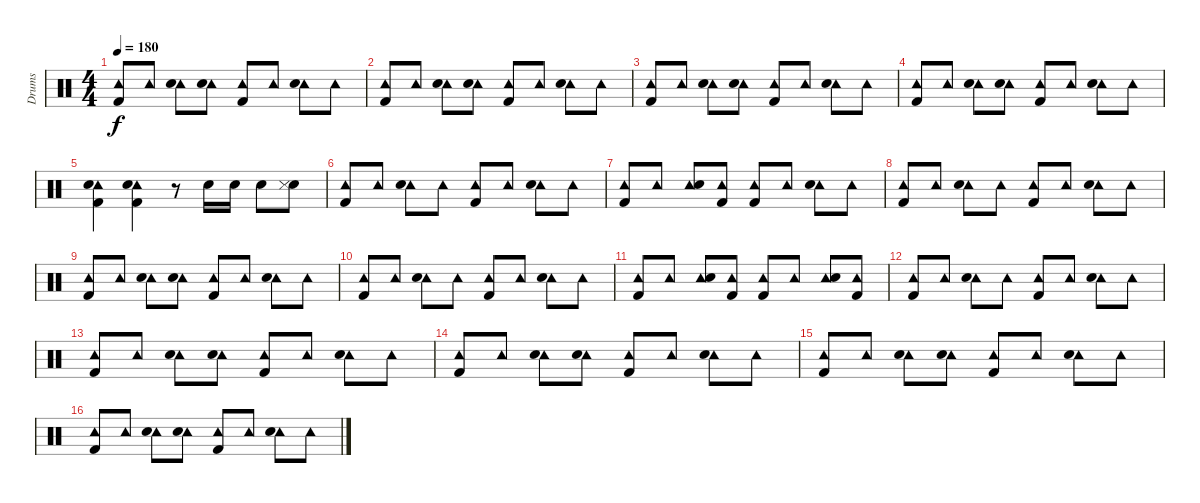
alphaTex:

\track ("Drums" "Drums") {instrument percussion}
\staff {score}
\articulation defaults
\ts (4 4)
\tempo 180
\clef neutral
\ks c
("Tambourine (hit)" "Kick (hit) 2").8{dy f} "Tambourine (hit)".8 ("Tambourine (hit)" "Snare (hit) 2").8 ("Tambourine (hit)" "Snare (hit) 2").8 ("Tambourine (hit)" "Kick (hit) 2").8 "Tambourine (hit)".8 ("Tambourine (hit)" "Snare (hit) 2").8 "Tambourine (hit)".8 |
("Tambourine (hit)" "Kick (hit) 2").8 "Tambourine (hit)".8 ("Tambourine (hit)" "Snare (hit) 2").8 ("Tambourine (hit)" "Snare (hit) 2").8 ("Tambourine (hit)" "Kick (hit) 2").8 "Tambourine (hit)".8 ("Tambourine (hit)" "Snare (hit) 2").8 "Tambourine (hit)".8 |
("Tambourine (hit)" "Kick (hit) 2").8 "Tambourine (hit)".8 ("Tambourine (hit)" "Snare (hit) 2").8 ("Tambourine (hit)" "Snare (hit) 2").8 ("Tambourine (hit)" "Kick (hit) 2").8 "Tambourine (hit)".8 ("Tambourine (hit)" "Snare (hit) 2").8 "Tambourine (hit)".8 |
("Tambourine (hit)" "Kick (hit) 2").8 "Tambourine (hit)".8 ("Tambourine (hit)" "Snare (hit) 2").8 ("Tambourine (hit)" "Snare (hit) 2").8 ("Tambourine (hit)" "Kick (hit) 2").8 "Tambourine (hit)".8 ("Tambourine (hit)" "Snare (hit) 2").8 "Tambourine (hit)".8 |
("Tambourine (hit)" "Snare (hit) 2" "Kick (hit) 2").4 ("Tambourine (hit)" "Snare (hit) 2" "Kick (hit) 2").4 r.8 "Snare (hit) 2".16 "Snare (hit) 2".16 "Snare (hit) 2".8 ("Snare (hit) 2" "Snare (side stick) 3").8 |
("Tambourine (hit)" "Kick (hit) 2").8 "Tambourine (hit)".8 ("Tambourine (hit)" "Snare (hit) 2").8 "Tambourine (hit)".8 ("Tambourine (hit)" "Kick (hit) 2").8 "Tambourine (hit)".8 ("Tambourine (hit)" "Snare (hit) 2").8 "Tambourine (hit)".8 |
("Tambourine (hit)" "Kick (hit) 2").8 "Tambourine (hit)".8 ("Tambourine (hit)" "Snare (hit) 2").8 ("Tambourine (hit)" "Kick (hit) 2").8 ("Tambourine (hit)" "Kick (hit) 2").8 "Tambourine (hit)".8 ("Tambourine (hit)" "Snare (hit) 2").8 "Tambourine (hit)".8 |
("Tambourine (hit)" "Kick (hit) 2").8 "Tambourine (hit)".8 ("Tambourine (hit)" "Snare (hit) 2").8 "Tambourine (hit)".8 ("Tambourine (hit)" "Kick (hit) 2").8 "Tambourine (hit)".8 ("Tambourine (hit)" "Snare (hit) 2").8 "Tambourine (hit)".8 |
("Tambourine (hit)" "Kick (hit) 2").8 "Tambourine (hit)".8 ("Tambourine (hit)" "Snare (hit) 2").8 ("Tambourine (hit)" "Snare (hit) 2").8 ("Tambourine (hit)" "Kick (hit) 2").8 "Tambourine (hit)".8 ("Tambourine (hit)" "Snare (hit) 2").8 "Tambourine (hit)".8 |
("Tambourine (hit)" "Kick (hit) 2").8 "Tambourine (hit)".8 ("Tambourine (hit)" "Snare (hit) 2").8 "Tambourine (hit)".8 ("Tambourine (hit)" "Kick (hit) 2").8 "Tambourine (hit)".8 ("Tambourine (hit)" "Snare (hit) 2").8 "Tambourine (hit)".8 |
("Tambourine (hit)" "Kick (hit) 2").8 "Tambourine (hit)".8 ("Tambourine (hit)" "Snare (hit) 2").8 ("Tambourine (hit)" "Kick (hit) 2").8 ("Tambourine (hit)" "Kick (hit) 2").8 "Tambourine (hit)".8 ("Tambourine (hit)" "Snare (hit) 2").8 ("Tambourine (hit)" "Kick (hit) 2").8 |
("Tambourine (hit)" "Kick (hit) 2").8 "Tambourine (hit)".8 ("Tambourine (hit)" "Snare (hit) 2").8 "Tambourine (hit)".8 ("Tambourine (hit)" "Kick (hit) 2").8 "Tambourine (hit)".8 ("Tambourine (hit)" "Snare (hit) 2").8 "Tambourine (hit)".8 |
("Tambourine (hit)" "Kick (hit) 2").8 "Tambourine (hit)".8 ("Tambourine (hit)" "Snare (hit) 2").8 ("Tambourine (hit)" "Snare (hit) 2").8 ("Tambourine (hit)" "Kick (hit) 2").8 "Tambourine (hit)".8 ("Tambourine (hit)" "Snare (hit) 2").8 "Tambourine (hit)".8 |
("Tambourine (hit)" "Kick (hit) 2").8 "Tambourine (hit)".8 ("Tambourine (hit)" "Snare (hit) 2").8 ("Tambourine (hit)" "Snare (hit) 2").8 ("Tambourine (hit)" "Kick (hit) 2").8 "Tambourine (hit)".8 ("Tambourine (hit)" "Snare (hit) 2").8 "Tambourine (hit)".8 |
("Tambourine (hit)" "Kick (hit) 2").8 "Tambourine (hit)".8 ("Tambourine (hit)" "Snare (hit) 2").8 ("Tambourine (hit)" "Snare (hit) 2").8 ("Tambourine (hit)" "Kick (hit) 2").8 "Tambourine (hit)".8 ("Tambourine (hit)" "Snare (hit) 2").8 "Tambourine (hit)".8 |
("Tambourine (hit)" "Kick (hit) 2").8 "Tambourine (hit)".8 ("Tambourine (hit)" "Snare (hit) 2").8 ("Tambourine (hit)" "Snare (hit) 2").8 ("Tambourine (hit)" "Kick (hit) 2").8 "Tambourine (hit)".8 ("Tambourine (hit)" "Snare (hit) 2").8 "Tambourine (hit)".8
